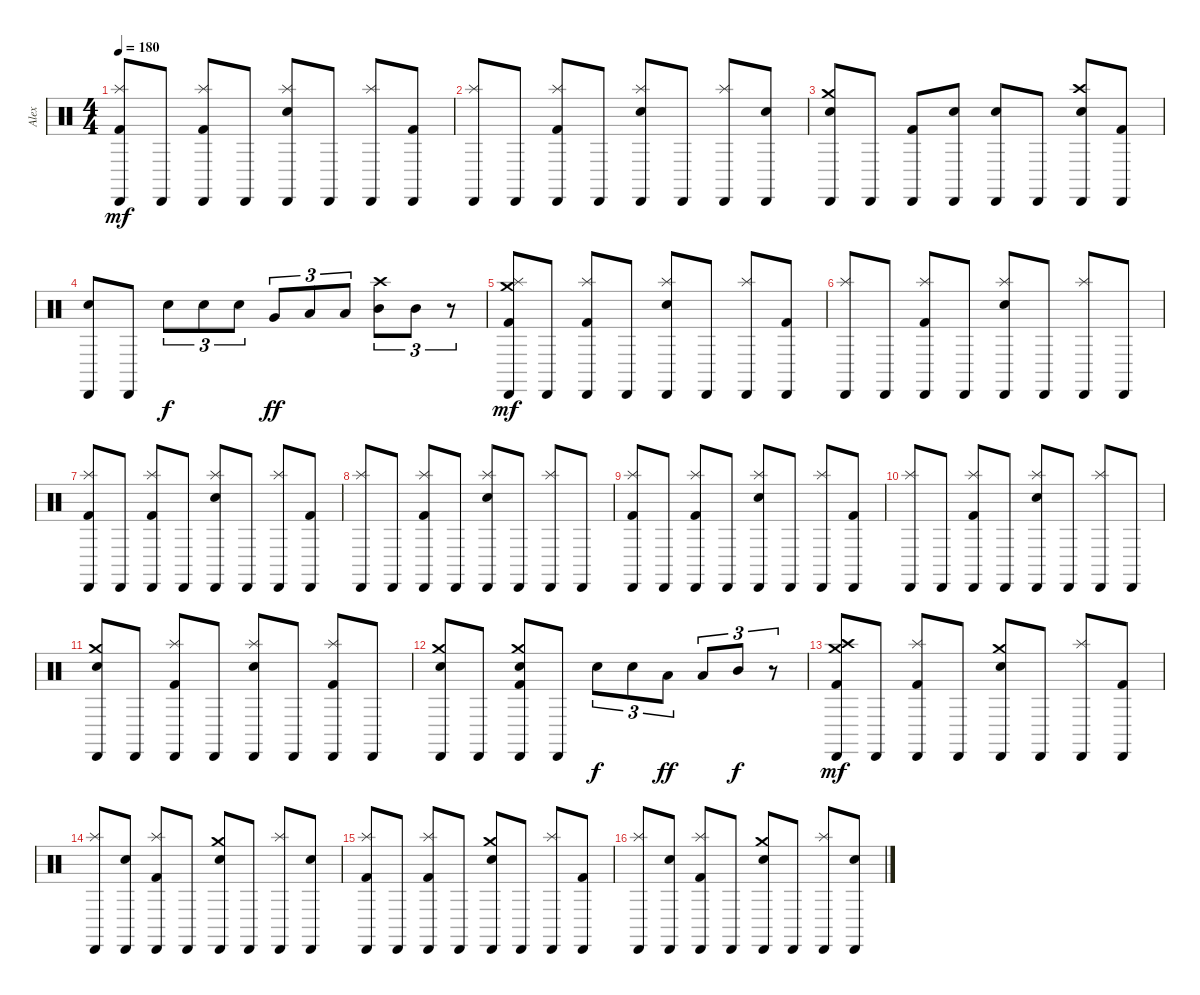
\track ("Alex" "Alex") {instrument percussion}
\staff {score}
\articulation defaults
\ts (4 4)
\tempo 180
\clef neutral
\ks c
("Splash (hit)" "Kick (hit) 2" "Cabasa (hit)").8{dy mf} "Cabasa (hit)".8 ("Splash (hit)" "Kick (hit) 2" "Cabasa (hit)").8 "Cabasa (hit)".8 ("Splash (hit)" "Snare (hit) 2" "Cabasa (hit)").8 "Cabasa (hit)".8 ("Splash (hit)" "Cabasa (hit)").8 ("Kick (hit) 2" "Cabasa (hit)").8 |
("Splash (hit)" "Cabasa (hit)").8 "Cabasa (hit)".8 ("Splash (hit)" "Kick (hit) 2" "Cabasa (hit)").8 "Cabasa (hit)".8 ("Splash (hit)" "Snare (hit) 2" "Cabasa (hit)").8 "Cabasa (hit)".8 ("Splash (hit)" "Cabasa (hit)").8 ("Snare (hit) 2" "Cabasa (hit)").8 |
("Crash medium (hit)" "Snare (hit) 2" "Cabasa (hit)").8 "Cabasa (hit)".8 ("Kick (hit) 2" "Cabasa (hit)").8 ("Snare (hit) 2" "Cabasa (hit)").8 ("Snare (hit) 2" "Cabasa (hit)").8 "Cabasa (hit)".8 ("Crash high (hit)" "Snare (hit) 2" "Cabasa (hit)").8 ("Kick (hit) 2" "Cabasa (hit)").8 |
("Snare (hit) 2" "Cabasa (hit)").8 "Cabasa (hit)".8 "Snare (hit) 2".8{tu (3 2) dy f} "Snare (hit) 2".8{tu (3 2)} "Snare (hit) 2".8{tu (3 2)} "Very Low Tom (hit)".8{tu (3 2) dy ff} "Low Tom (hit)".8{tu (3 2)} "Low Tom (hit)".8{tu (3 2)} ("Crash high (hit)" "Mid Tom (hit)").8{tu (3 2)} "Mid Tom (hit)".8{tu (3 2)} r.8{tu (3 2)} |
("Splash (hit)" "Crash medium (hit)" "Kick (hit) 2" "Cabasa (hit)").8{dy mf} "Cabasa (hit)".8 ("Splash (hit)" "Kick (hit) 2" "Cabasa (hit)").8 "Cabasa (hit)".8 ("Splash (hit)" "Snare (hit) 2" "Cabasa (hit)").8 "Cabasa (hit)".8 ("Splash (hit)" "Cabasa (hit)").8 ("Kick (hit) 2" "Cabasa (hit)").8 |
("Splash (hit)" "Cabasa (hit)").8 "Cabasa (hit)".8 ("Splash (hit)" "Kick (hit) 2" "Cabasa (hit)").8 "Cabasa (hit)".8 ("Splash (hit)" "Snare (hit) 2" "Cabasa (hit)").8 "Cabasa (hit)".8 ("Splash (hit)" "Cabasa (hit)").8 "Cabasa (hit)".8 |
("Splash (hit)" "Kick (hit) 2" "Cabasa (hit)").8 "Cabasa (hit)".8 ("Splash (hit)" "Kick (hit) 2" "Cabasa (hit)").8 "Cabasa (hit)".8 ("Splash (hit)" "Snare (hit) 2" "Cabasa (hit)").8 "Cabasa (hit)".8 ("Splash (hit)" "Cabasa (hit)").8 ("Kick (hit) 2" "Cabasa (hit)").8 |
("Splash (hit)" "Cabasa (hit)").8 "Cabasa (hit)".8 ("Splash (hit)" "Kick (hit) 2" "Cabasa (hit)").8 "Cabasa (hit)".8 ("Splash (hit)" "Snare (hit) 2" "Cabasa (hit)").8 "Cabasa (hit)".8 ("Splash (hit)" "Cabasa (hit)").8 "Cabasa (hit)".8 |
("Splash (hit)" "Kick (hit) 2" "Cabasa (hit)").8 "Cabasa (hit)".8 ("Splash (hit)" "Kick (hit) 2" "Cabasa (hit)").8 "Cabasa (hit)".8 ("Splash (hit)" "Snare (hit) 2" "Cabasa (hit)").8 "Cabasa (hit)".8 ("Splash (hit)" "Cabasa (hit)").8 ("Kick (hit) 2" "Cabasa (hit)").8 |
("Splash (hit)" "Cabasa (hit)").8 "Cabasa (hit)".8 ("Splash (hit)" "Kick (hit) 2" "Cabasa (hit)").8 "Cabasa (hit)".8 ("Splash (hit)" "Snare (hit) 2" "Cabasa (hit)").8 "Cabasa (hit)".8 ("Splash (hit)" "Cabasa (hit)").8 "Cabasa (hit)".8 |
("Crash medium (hit)" "Snare (hit) 2" "Cabasa (hit)").8 "Cabasa (hit)".8 ("Splash (hit)" "Kick (hit) 2" "Cabasa (hit)").8 "Cabasa (hit)".8 ("Splash (hit)" "Snare (hit) 2" "Cabasa (hit)").8 "Cabasa (hit)".8 ("Splash (hit)" "Kick (hit) 2" "Cabasa (hit)").8 "Cabasa (hit)".8 |
("Crash medium (hit)" "Snare (hit) 2" "Cabasa (hit)").8 "Cabasa (hit)".8 ("Crash medium (hit)" "Snare (hit) 2" "Kick (hit) 2" "Cabasa (hit)").8 "Cabasa (hit)".8 "Snare (hit) 2".8{tu (3 2) dy f} "Snare (hit) 2".8{tu (3 2)} "Low Tom (hit)".8{tu (3 2) dy ff} "Low Tom (hit)".8{tu (3 2)} "Mid Tom (hit)".8{tu (3 2) dy f} r.8{tu (3 2)} |
("Crash medium (hit)" "Crash high (hit)" "Kick (hit) 2" "Cabasa (hit)").8{dy mf} "Cabasa (hit)".8 ("Splash (hit)" "Kick (hit) 2" "Cabasa (hit)").8 "Cabasa (hit)".8 ("Crash medium (hit)" "Snare (hit) 2" "Cabasa (hit)").8 "Cabasa (hit)".8 ("Splash (hit)" "Cabasa (hit)").8 ("Kick (hit) 2" "Cabasa (hit)").8 |
("Splash (hit)" "Cabasa (hit)").8 ("Snare (hit) 2" "Cabasa (hit)").8 ("Splash (hit)" "Kick (hit) 2" "Cabasa (hit)").8 "Cabasa (hit)".8 ("Crash medium (hit)" "Snare (hit) 2" "Cabasa (hit)").8 "Cabasa (hit)".8 ("Splash (hit)" "Cabasa (hit)").8 ("Snare (hit) 2" "Cabasa (hit)").8 |
("Splash (hit)" "Kick (hit) 2" "Cabasa (hit)").8 "Cabasa (hit)".8 ("Splash (hit)" "Kick (hit) 2" "Cabasa (hit)").8 "Cabasa (hit)".8 ("Crash medium (hit)" "Snare (hit) 2" "Cabasa (hit)").8 "Cabasa (hit)".8 ("Splash (hit)" "Cabasa (hit)").8 ("Kick (hit) 2" "Cabasa (hit)").8 |
("Splash (hit)" "Cabasa (hit)").8 ("Snare (hit) 2" "Cabasa (hit)").8 ("Splash (hit)" "Kick (hit) 2" "Cabasa (hit)").8 "Cabasa (hit)".8 ("Crash medium (hit)" "Snare (hit) 2" "Cabasa (hit)").8 "Cabasa (hit)".8 ("Splash (hit)" "Cabasa (hit)").8 ("Snare (hit) 2" "Cabasa (hit)").8
